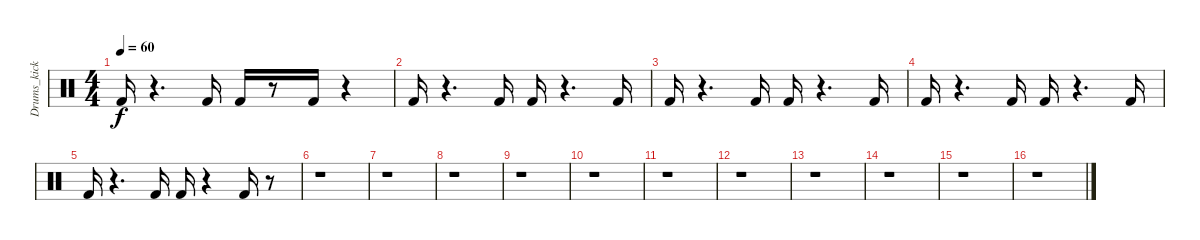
\track ("Drums_kick" "Drums_kick") {instrument percussion}
\staff {score}
\articulation defaults
\ts (4 4)
\tempo 60
\clef neutral
\ks c "Kick (hit) 2".16{dy f}
r.4{d} "Kick (hit) 2".16 "Kick (hit) 2".16 r.8 "Kick (hit) 2".16 r.4 |
"Kick (hit) 2".16 r.4{d} "Kick (hit) 2".16 "Kick (hit) 2".16 r.4{d} "Kick (hit) 2".16 |
"Kick (hit) 2".16 r.4{d} "Kick (hit) 2".16 "Kick (hit) 2".16 r.4{d} "Kick (hit) 2".16 |
"Kick (hit) 2".16 r.4{d} "Kick (hit) 2".16 "Kick (hit) 2".16 r.4{d} "Kick (hit) 2".16 |
"Kick (hit) 2".16 r.4{d} "Kick (hit) 2".16 "Kick (hit) 2".16 r.4 "Kick (hit) 2".16 r.8 |
r.1 |
r.1 |
r.1 |
r.1 |
r.1 |
r.1 |
r.1 |
r.1 |
r.1 |
r.1 |
r.1
